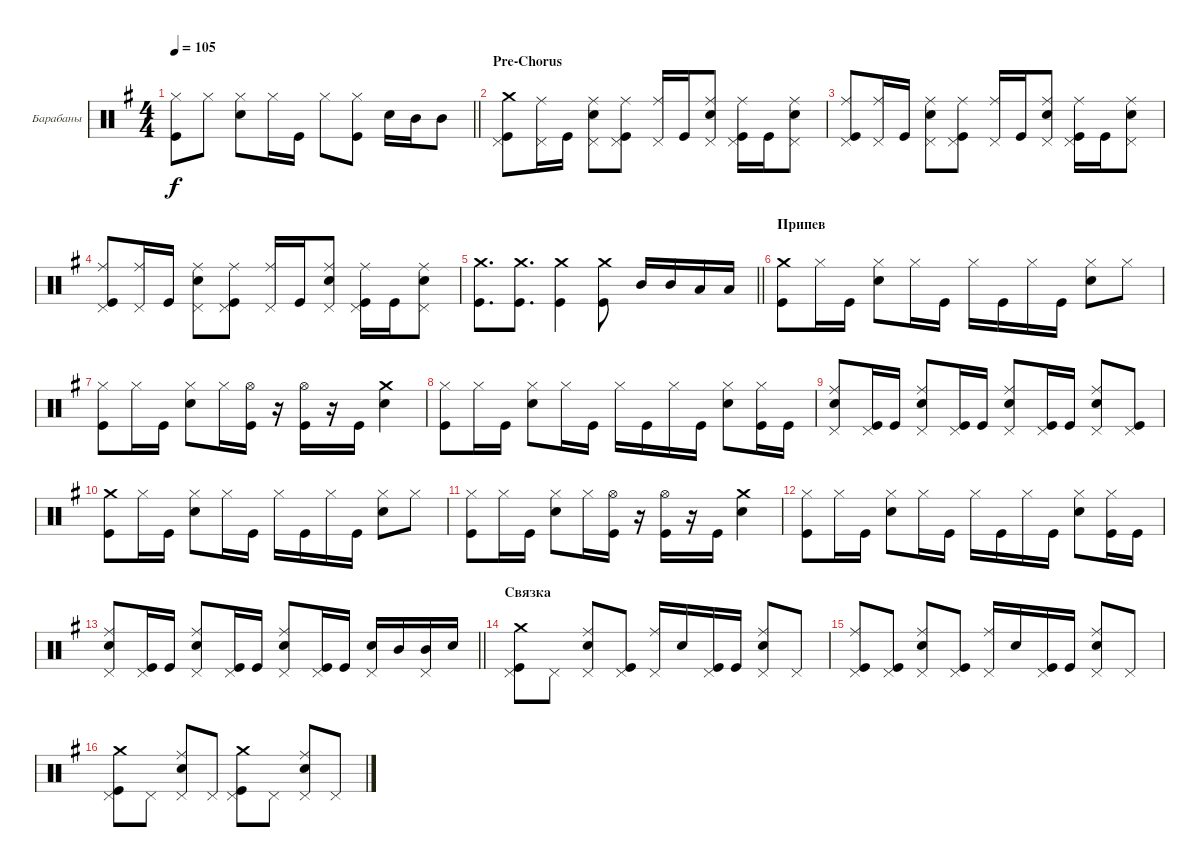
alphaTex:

\bracketExtendMode groupsimilarinstruments
\firstSystemTrackNameMode fullname
\otherSystemsTrackNameMode fullname
\firstSystemTrackNameOrientation horizontal
\otherSystemsTrackNameOrientation horizontal
\chordDiagramsInScore
\track ("Барабаны" "Drums") {instrument percussion}
\staff {score}
\articulation defaults
\ts (4 4)
\tempo 105
\clef neutral
\barLineRight lightlight
\ks eminor
("Kick (hit)" "Hi-Hat (closed)").8{dy f} "Hi-Hat (closed)".8 ("Hi-Hat (closed)" "Snare (hit) 2").8 "Hi-Hat (closed)".16 "Kick (hit)".16 "Hi-Hat (closed)".8 ("Hi-Hat (closed)" "Kick (hit)").8 "Snare (hit) 2".16 "Mid Tom (hit)".16 "Mid Tom (hit)".8 |
\section ("" "Pre-Chorus")
("Kick (hit)" "Pedal Hi-Hat (hit)" "Crash medium (hit)").8 ("Pedal Hi-Hat (hit)" "Ride (middle)").16 "Kick (hit)".16 ("Pedal Hi-Hat (hit)" "Snare (hit) 2" "Ride (middle)").8 ("Pedal Hi-Hat (hit)" "Kick (hit)" "Ride (middle)").8 ("Pedal Hi-Hat (hit)" "Ride (middle)").16 "Kick (hit)".16 ("Snare (hit) 2" "Pedal Hi-Hat (hit)" "Ride (middle)").8 ("Pedal Hi-Hat (hit)" "Kick (hit)" "Ride (middle)").16 "Kick (hit)".16 ("Pedal Hi-Hat (hit)" "Snare (hit) 2" "Ride (middle)").8 |
("Kick (hit)" "Pedal Hi-Hat (hit)" "Ride (middle)").8 ("Pedal Hi-Hat (hit)" "Ride (middle)").16 "Kick (hit)".16 ("Pedal Hi-Hat (hit)" "Snare (hit) 2" "Ride (middle)").8 ("Pedal Hi-Hat (hit)" "Kick (hit)" "Ride (middle)").8 ("Pedal Hi-Hat (hit)" "Ride (middle)").16 "Kick (hit)".16 ("Snare (hit) 2" "Pedal Hi-Hat (hit)" "Ride (middle)").8 ("Pedal Hi-Hat (hit)" "Kick (hit)" "Ride (middle)").16 "Kick (hit)".16 ("Pedal Hi-Hat (hit)" "Snare (hit) 2" "Ride (middle)").8 |
("Kick (hit)" "Pedal Hi-Hat (hit)" "Ride (middle)").8 ("Pedal Hi-Hat (hit)" "Ride (middle)").16 "Kick (hit)".16 ("Pedal Hi-Hat (hit)" "Snare (hit) 2" "Ride (middle)").8 ("Pedal Hi-Hat (hit)" "Kick (hit)" "Ride (middle)").8 ("Pedal Hi-Hat (hit)" "Ride (middle)").16 "Kick (hit)".16 ("Snare (hit) 2" "Pedal Hi-Hat (hit)" "Ride (middle)").8 ("Pedal Hi-Hat (hit)" "Kick (hit)" "Ride (middle)").16 "Kick (hit)".16 ("Pedal Hi-Hat (hit)" "Snare (hit) 2" "Ride (middle)").8 |
\barLineRight lightlight
("Kick (hit)" "Crash medium (hit)").8{d} ("Kick (hit)" "Crash medium (hit)").8{d} ("Kick (hit)" "Crash medium (hit)").4 ("Kick (hit)" "Crash medium (hit)").8 "Mid Tom (hit)".16 "Mid Tom (hit)".16 "Low Tom (hit)".16 "Low Tom (hit)".16 |
\section ("" "Припев")
("Kick (hit)" "Crash medium (hit)").8 "Hi-Hat (closed)".16 "Kick (hit)".16 ("Snare (hit) 2" "Hi-Hat (closed)").8 "Hi-Hat (closed)".16 "Kick (hit)".16 "Hi-Hat (closed)".16 "Kick (hit)".16 "Hi-Hat (closed)".16 "Kick (hit)".16 ("Snare (hit) 2" "Hi-Hat (closed)").8 "Hi-Hat (closed)".8 |
("Kick (hit)" "Hi-Hat (closed)").8 "Hi-Hat (closed)".16 "Kick (hit)".16 ("Snare (hit) 2" "Hi-Hat (closed)").8 "Hi-Hat (closed)".16 ("Kick (hit)" "Hi-Hat (open)").16 r.16 ("Kick (hit)" "Hi-Hat (open)").16 r.16 "Kick (hit)".16 ("Snare (hit) 2" "Crash medium (hit)").4 |
("Kick (hit)" "Hi-Hat (closed)").8 "Hi-Hat (closed)".16 "Kick (hit)".16 ("Snare (hit) 2" "Hi-Hat (closed)").8 "Hi-Hat (closed)".16 "Kick (hit)".16 "Hi-Hat (closed)".16 "Kick (hit)".16 "Hi-Hat (closed)".16 "Kick (hit)".16 ("Snare (hit) 2" "Hi-Hat (closed)").8 ("Hi-Hat (closed)" "Kick (hit)").16 "Kick (hit)".16 |
("Snare (hit) 2" "Ride (middle)" "Pedal Hi-Hat (hit)").8 ("Kick (hit)" "Pedal Hi-Hat (hit)").16 "Kick (hit)".16 ("Snare (hit) 2" "Ride (middle)" "Pedal Hi-Hat (hit)").8 ("Kick (hit)" "Pedal Hi-Hat (hit)").16 "Kick (hit)".16 ("Snare (hit) 2" "Ride (middle)" "Pedal Hi-Hat (hit)").8 ("Kick (hit)" "Pedal Hi-Hat (hit)").16 "Kick (hit)".16 ("Snare (hit) 2" "Ride (middle)" "Pedal Hi-Hat (hit)").8 ("Pedal Hi-Hat (hit)" "Kick (hit)").8 |
("Kick (hit)" "Crash medium (hit)").8 "Hi-Hat (closed)".16 "Kick (hit)".16 ("Snare (hit) 2" "Hi-Hat (closed)").8 "Hi-Hat (closed)".16 "Kick (hit)".16 "Hi-Hat (closed)".16 "Kick (hit)".16 "Hi-Hat (closed)".16 "Kick (hit)".16 ("Snare (hit) 2" "Hi-Hat (closed)").8 "Hi-Hat (closed)".8 |
("Kick (hit)" "Hi-Hat (closed)").8 "Hi-Hat (closed)".16 "Kick (hit)".16 ("Snare (hit) 2" "Hi-Hat (closed)").8 "Hi-Hat (closed)".16 ("Kick (hit)" "Hi-Hat (open)").16 r.16 ("Kick (hit)" "Hi-Hat (open)").16 r.16 "Kick (hit)".16 ("Snare (hit) 2" "Crash medium (hit)").4 |
("Kick (hit)" "Hi-Hat (closed)").8 "Hi-Hat (closed)".16 "Kick (hit)".16 ("Snare (hit) 2" "Hi-Hat (closed)").8 "Hi-Hat (closed)".16 "Kick (hit)".16 "Hi-Hat (closed)".16 "Kick (hit)".16 "Hi-Hat (closed)".16 "Kick (hit)".16 ("Snare (hit) 2" "Hi-Hat (closed)").8 ("Hi-Hat (closed)" "Kick (hit)").16 "Kick (hit)".16 |
\barLineRight lightlight
("Snare (hit) 2" "Ride (middle)" "Pedal Hi-Hat (hit)").8 ("Kick (hit)" "Pedal Hi-Hat (hit)").16 "Kick (hit)".16 ("Snare (hit) 2" "Ride (middle)" "Pedal Hi-Hat (hit)").8 ("Kick (hit)" "Pedal Hi-Hat (hit)").16 "Kick (hit)".16 ("Snare (hit) 2" "Ride (middle)" "Pedal Hi-Hat (hit)").8 ("Kick (hit)" "Pedal Hi-Hat (hit)").16 "Kick (hit)".16 ("Snare (hit) 2" "Pedal Hi-Hat (hit)").16 "Mid Tom (hit)".16 ("Pedal Hi-Hat (hit)" "Mid Tom (hit)").16 "Snare (hit) 2".16 |
\section ("" "Связка")
("Pedal Hi-Hat (hit)" "Crash medium (hit)" "Kick (hit)").8 "Pedal Hi-Hat (hit)".8 ("Pedal Hi-Hat (hit)" "Snare (hit) 2" "Ride (middle)").8 ("Pedal Hi-Hat (hit)" "Kick (hit)").8 ("Pedal Hi-Hat (hit)" "Ride (middle)").16 "Snare (hit) 2".16 ("Pedal Hi-Hat (hit)" "Kick (hit)").16 "Kick (hit)".16 ("Pedal Hi-Hat (hit)" "Snare (hit) 2" "Ride (middle)").8 "Pedal Hi-Hat (hit)".8 |
("Pedal Hi-Hat (hit)" "Ride (middle)" "Kick (hit)").8 ("Pedal Hi-Hat (hit)" "Kick (hit)").8 ("Pedal Hi-Hat (hit)" "Snare (hit) 2" "Ride (middle)").8 ("Pedal Hi-Hat (hit)" "Kick (hit)").8 ("Pedal Hi-Hat (hit)" "Ride (middle)").16 "Snare (hit) 2".16 ("Pedal Hi-Hat (hit)" "Kick (hit)").16 "Kick (hit)".16 ("Pedal Hi-Hat (hit)" "Snare (hit) 2" "Ride (middle)").8 "Pedal Hi-Hat (hit)".8 |
("Pedal Hi-Hat (hit)" "Crash medium (hit)" "Kick (hit)").8 "Pedal Hi-Hat (hit)".8 ("Pedal Hi-Hat (hit)" "Ride (middle)" "Snare (hit) 2").8 "Pedal Hi-Hat (hit)".8 ("Pedal Hi-Hat (hit)" "Crash medium (hit)" "Kick (hit)").8 "Pedal Hi-Hat (hit)".8 ("Pedal Hi-Hat (hit)" "Ride (middle)" "Snare (hit) 2").8 "Pedal Hi-Hat (hit)".8
